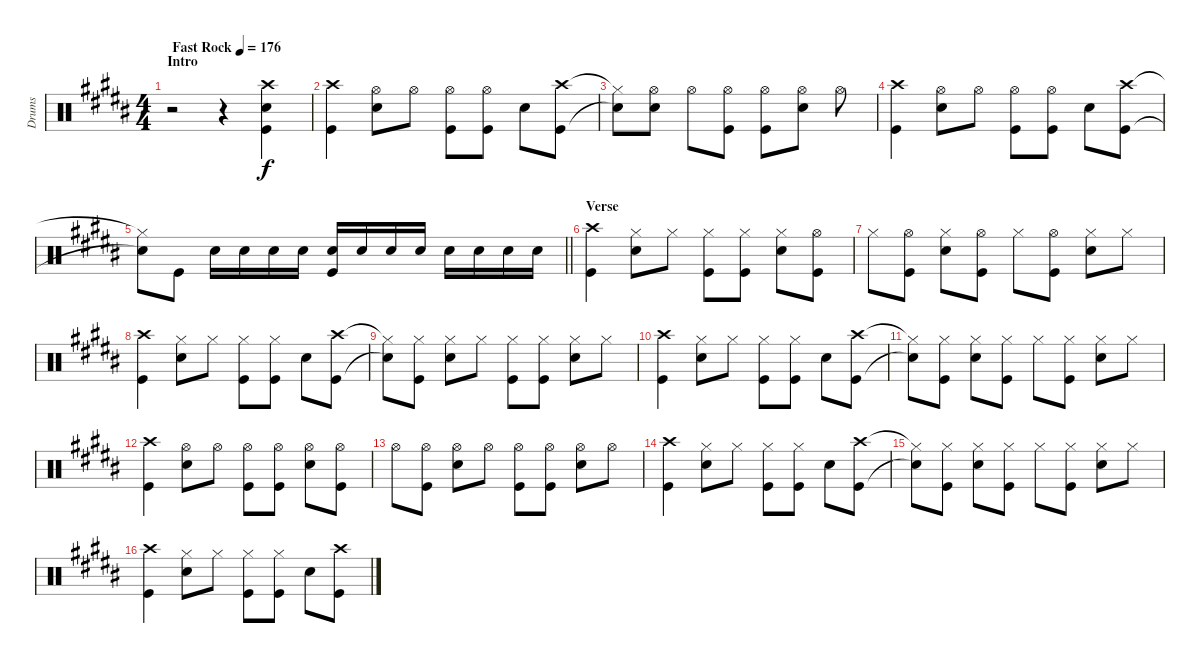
\track ("Drums" "Drums") {instrument percussion}
\staff {score}
\articulation defaults
\ts (4 4)
\section ("" "Intro")
\tempo (176 "Fast Rock")
\clef neutral
\ks b
r.2{dy f} r.4 ("Kick (hit)" "Snare (hit) 2" "Crash high (hit)").4 |
("Kick (hit)" "Crash high (hit)").4 ("Snare (hit) 2" "Hi-Hat (open)").8 "Hi-Hat (open)".8 ("Hi-Hat (open)" "Kick (hit)").8 ("Hi-Hat (open)" "Kick (hit)").8 "Snare (hit) 2".8 ("Crash high (hit)" "Kick (hit)").8 |
("Hi-Hat (closed)"{t} "Snare (hit)"{t}).8 ("Snare (hit) 2" "Hi-Hat (open)").8 "Hi-Hat (open)".8 ("Hi-Hat (open)" "Kick (hit)").8 ("Hi-Hat (open)" "Kick (hit)").8 ("Hi-Hat (open)" "Snare (hit) 2").8 "Hi-Hat (open)".8 |
("Kick (hit)" "Crash high (hit)").4 ("Snare (hit) 2" "Hi-Hat (open)").8 "Hi-Hat (open)".8 ("Hi-Hat (open)" "Kick (hit)").8 ("Hi-Hat (open)" "Kick (hit)").8 "Snare (hit) 2".8 ("Crash high (hit)" "Kick (hit)").8 |
\barLineRight lightlight
("Hi-Hat (closed)"{t} "Snare (hit)"{t}).8 "Kick (hit)".8 "Snare (hit) 2".16 "Snare (hit) 2".16 "Snare (hit) 2".16 "Snare (hit) 2".16 ("Snare (hit) 2" "Kick (hit)").16 "Snare (hit) 2".16 "Snare (hit) 2".16 "Snare (hit) 2".16 "Snare (hit) 2".16 "Snare (hit) 2".16 "Snare (hit) 2".16 "Snare (hit) 2".16 |
\section ("" "Verse")
("Kick (hit)" "Crash high (hit)").4 ("Snare (hit) 2" "Hi-Hat (closed)").8 "Hi-Hat (closed)".8 ("Hi-Hat (closed)" "Kick (hit)").8 ("Hi-Hat (closed)" "Kick (hit)").8 ("Hi-Hat (closed)" "Snare (hit) 2").8 ("Hi-Hat (open)" "Kick (hit)").8 |
"Hi-Hat (closed)".8 ("Hi-Hat (open)" "Kick (hit)").8 ("Hi-Hat (closed)" "Snare (hit) 2").8 ("Hi-Hat (open)" "Kick (hit)").8 "Hi-Hat (closed)".8 ("Hi-Hat (open)" "Kick (hit)").8 ("Hi-Hat (closed)" "Snare (hit) 2").8 "Hi-Hat (closed)".8 |
("Kick (hit)" "Crash high (hit)").4 ("Snare (hit) 2" "Hi-Hat (closed)").8 "Hi-Hat (closed)".8 ("Hi-Hat (closed)" "Kick (hit)").8 ("Hi-Hat (closed)" "Kick (hit)").8 "Snare (hit) 2".8 ("Crash high (hit)" "Kick (hit)").8 |
("Hi-Hat (closed)"{t} "Snare (hit)"{t}).8 ("Kick (hit)" "Hi-Hat (closed)").8 ("Snare (hit) 2" "Hi-Hat (closed)").8 "Hi-Hat (closed)".8 ("Hi-Hat (closed)" "Kick (hit)").8 ("Hi-Hat (closed)" "Kick (hit)").8 ("Hi-Hat (closed)" "Snare (hit) 2").8 "Hi-Hat (closed)".8 |
("Kick (hit)" "Crash high (hit)").4 ("Snare (hit) 2" "Hi-Hat (closed)").8 "Hi-Hat (closed)".8 ("Hi-Hat (closed)" "Kick (hit)").8 ("Hi-Hat (closed)" "Kick (hit)").8 "Snare (hit) 2".8 ("Crash high (hit)" "Kick (hit)").8 |
("Hi-Hat (closed)"{t} "Snare (hit)"{t}).8 ("Hi-Hat (closed)" "Kick (hit)").8 ("Hi-Hat (closed)" "Snare (hit) 2").8 ("Hi-Hat (closed)" "Kick (hit)").8 "Hi-Hat (closed)".8 ("Hi-Hat (closed)" "Kick (hit)").8 ("Hi-Hat (closed)" "Snare (hit) 2").8 "Hi-Hat (closed)".8 |
("Kick (hit)" "Crash high (hit)").4 ("Snare (hit) 2" "Hi-Hat (open)").8 "Hi-Hat (open)".8 ("Hi-Hat (open)" "Kick (hit)").8 ("Hi-Hat (open)" "Kick (hit)").8 ("Snare (hit) 2" "Hi-Hat (open)").8 ("Hi-Hat (open)" "Kick (hit)").8 |
"Hi-Hat (open)".8 ("Hi-Hat (open)" "Kick (hit)").8 ("Hi-Hat (open)" "Snare (hit) 2").8 "Hi-Hat (open)".8 ("Hi-Hat (open)" "Kick (hit)").8 ("Hi-Hat (open)" "Kick (hit)").8 ("Hi-Hat (open)" "Snare (hit) 2").8 "Hi-Hat (open)".8 |
("Kick (hit)" "Crash high (hit)").4 ("Snare (hit) 2" "Hi-Hat (closed)").8 "Hi-Hat (closed)".8 ("Hi-Hat (closed)" "Kick (hit)").8 ("Hi-Hat (closed)" "Kick (hit)").8 "Snare (hit) 2".8 ("Crash high (hit)" "Kick (hit)").8 |
("Hi-Hat (closed)"{t} "Snare (hit)"{t}).8 ("Hi-Hat (closed)" "Kick (hit)").8 ("Hi-Hat (closed)" "Snare (hit) 2").8 ("Hi-Hat (closed)" "Kick (hit)").8 "Hi-Hat (closed)".8 ("Hi-Hat (closed)" "Kick (hit)").8 ("Hi-Hat (closed)" "Snare (hit) 2").8 "Hi-Hat (closed)".8 |
("Kick (hit)" "Crash high (hit)").4 ("Snare (hit) 2" "Hi-Hat (closed)").8 "Hi-Hat (closed)".8 ("Hi-Hat (closed)" "Kick (hit)").8 ("Hi-Hat (closed)" "Kick (hit)").8 "Snare (hit) 2".8 ("Crash high (hit)" "Kick (hit)").8
